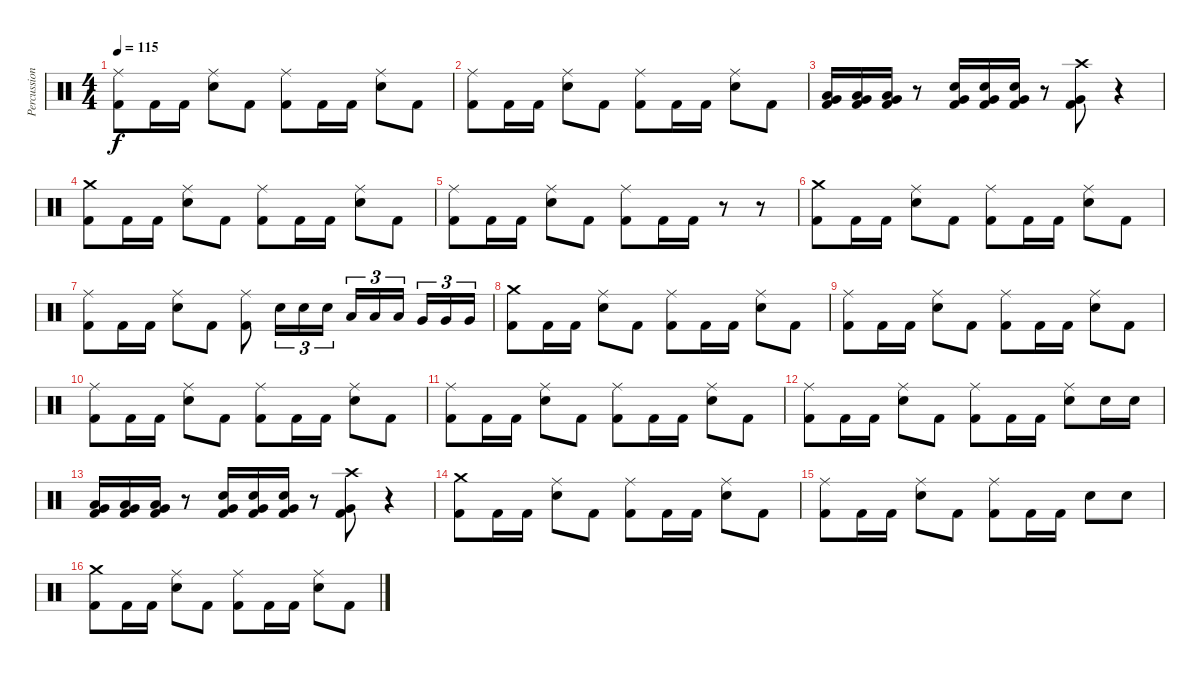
\track ("Percussioni" "Percussion") {instrument percussion}
\staff {score}
\articulation defaults
\ts (4 4)
\tempo 115
\clef neutral
\ks c
("Ride (middle)" "Kick (hit) 2").8{dy f} "Kick (hit) 2".16 "Kick (hit) 2".16 ("Ride (middle)" "Electric Snare (hit)").8 "Kick (hit) 2".8 ("Ride (middle)" "Kick (hit) 2").8 "Kick (hit) 2".16 "Kick (hit) 2".16 ("Ride (middle)" "Electric Snare (hit)").8 "Kick (hit) 2".8 |
("Ride (middle)" "Kick (hit) 2").8 "Kick (hit) 2".16 "Kick (hit) 2".16 ("Ride (middle)" "Electric Snare (hit)").8 "Kick (hit) 2".8 ("Ride (middle)" "Kick (hit) 2").8 "Kick (hit) 2".16 "Kick (hit) 2".16 ("Ride (middle)" "Electric Snare (hit)").8 "Kick (hit) 2".8 |
("Low Tom (hit)" "Very Low Tom (hit)" "Kick (hit) 2").16 ("Low Tom (hit)" "Very Low Tom (hit)" "Kick (hit) 2").16 ("Low Tom (hit)" "Very Low Tom (hit)" "Kick (hit) 2").16 r.8 ("Electric Snare (hit)" "Very Low Tom (hit)" "Kick (hit) 2").16 ("Electric Snare (hit)" "Very Low Tom (hit)" "Kick (hit) 2").16 ("Electric Snare (hit)" "Very Low Tom (hit)" "Kick (hit) 2").16 r.8 ("Crash high (hit)" "Very Low Tom (hit)" "Kick (hit) 2").8 r.4 |
("Crash medium (hit)" "Kick (hit) 2").8 "Kick (hit) 2".16 "Kick (hit) 2".16 ("Ride (middle)" "Electric Snare (hit)").8 "Kick (hit) 2".8 ("Ride (middle)" "Kick (hit) 2").8 "Kick (hit) 2".16 "Kick (hit) 2".16 ("Ride (middle)" "Electric Snare (hit)").8 "Kick (hit) 2".8 |
("Ride (middle)" "Kick (hit) 2").8 "Kick (hit) 2".16 "Kick (hit) 2".16 ("Ride (middle)" "Electric Snare (hit)").8 "Kick (hit) 2".8 ("Ride (middle)" "Kick (hit) 2").8 "Kick (hit) 2".16 "Kick (hit) 2".16 r.8 r.8 |
("Crash medium (hit)" "Kick (hit) 2").8 "Kick (hit) 2".16 "Kick (hit) 2".16 ("Ride (middle)" "Electric Snare (hit)").8 "Kick (hit) 2".8 ("Ride (middle)" "Kick (hit) 2").8 "Kick (hit) 2".16 "Kick (hit) 2".16 ("Ride (middle)" "Electric Snare (hit)").8 "Kick (hit) 2".8 |
("Ride (middle)" "Kick (hit) 2").8 "Kick (hit) 2".16 "Kick (hit) 2".16 ("Ride (middle)" "Electric Snare (hit)").8 "Kick (hit) 2".8 ("Ride (middle)" "Kick (hit) 2").8 "Electric Snare (hit)".16{tu (3 2)} "Electric Snare (hit)".16{tu (3 2)} "Electric Snare (hit)".16{tu (3 2)} "Low Tom (hit)".16{tu (3 2)} "Low Tom (hit)".16{tu (3 2)} "Low Tom (hit)".16{tu (3 2)} "Very Low Tom (hit)".16{tu (3 2)} "Very Low Tom (hit)".16{tu (3 2)} "Very Low Tom (hit)".16{tu (3 2)} |
("Crash medium (hit)" "Kick (hit) 2").8 "Kick (hit) 2".16 "Kick (hit) 2".16 ("Ride (middle)" "Electric Snare (hit)").8 "Kick (hit) 2".8 ("Ride (middle)" "Kick (hit) 2").8 "Kick (hit) 2".16 "Kick (hit) 2".16 ("Ride (middle)" "Electric Snare (hit)").8 "Kick (hit) 2".8 |
("Ride (middle)" "Kick (hit) 2").8 "Kick (hit) 2".16 "Kick (hit) 2".16 ("Ride (middle)" "Electric Snare (hit)").8 "Kick (hit) 2".8 ("Ride (middle)" "Kick (hit) 2").8 "Kick (hit) 2".16 "Kick (hit) 2".16 ("Ride (middle)" "Electric Snare (hit)").8 "Kick (hit) 2".8 |
("Ride (middle)" "Kick (hit) 2").8 "Kick (hit) 2".16 "Kick (hit) 2".16 ("Ride (middle)" "Electric Snare (hit)").8 "Kick (hit) 2".8 ("Ride (middle)" "Kick (hit) 2").8 "Kick (hit) 2".16 "Kick (hit) 2".16 ("Ride (middle)" "Electric Snare (hit)").8 "Kick (hit) 2".8 |
("Ride (middle)" "Kick (hit) 2").8 "Kick (hit) 2".16 "Kick (hit) 2".16 ("Ride (middle)" "Electric Snare (hit)").8 "Kick (hit) 2".8 ("Ride (middle)" "Kick (hit) 2").8 "Kick (hit) 2".16 "Kick (hit) 2".16 ("Ride (middle)" "Electric Snare (hit)").8 "Kick (hit) 2".8 |
("Ride (middle)" "Kick (hit) 2").8 "Kick (hit) 2".16 "Kick (hit) 2".16 ("Ride (middle)" "Electric Snare (hit)").8 "Kick (hit) 2".8 ("Ride (middle)" "Kick (hit) 2").8 "Kick (hit) 2".16 "Kick (hit) 2".16 ("Ride (middle)" "Electric Snare (hit)").8 "Electric Snare (hit)".16 "Electric Snare (hit)".16 |
("Low Tom (hit)" "Very Low Tom (hit)" "Kick (hit) 2").16 ("Low Tom (hit)" "Very Low Tom (hit)" "Kick (hit) 2").16 ("Low Tom (hit)" "Very Low Tom (hit)" "Kick (hit) 2").16 r.8 ("Electric Snare (hit)" "Very Low Tom (hit)" "Kick (hit) 2").16 ("Electric Snare (hit)" "Very Low Tom (hit)" "Kick (hit) 2").16 ("Electric Snare (hit)" "Very Low Tom (hit)" "Kick (hit) 2").16 r.8 ("Crash high (hit)" "Very Low Tom (hit)" "Kick (hit) 2").8 r.4 |
("Crash medium (hit)" "Kick (hit) 2").8 "Kick (hit) 2".16 "Kick (hit) 2".16 ("Ride (middle)" "Electric Snare (hit)").8 "Kick (hit) 2".8 ("Ride (middle)" "Kick (hit) 2").8 "Kick (hit) 2".16 "Kick (hit) 2".16 ("Ride (middle)" "Electric Snare (hit)").8 "Kick (hit) 2".8 |
("Ride (middle)" "Kick (hit) 2").8 "Kick (hit) 2".16 "Kick (hit) 2".16 ("Ride (middle)" "Electric Snare (hit)").8 "Kick (hit) 2".8 ("Ride (middle)" "Kick (hit) 2").8 "Kick (hit) 2".16 "Kick (hit) 2".16 "Electric Snare (hit)".8 "Electric Snare (hit)".8 |
("Crash medium (hit)" "Kick (hit) 2").8 "Kick (hit) 2".16 "Kick (hit) 2".16 ("Ride (middle)" "Electric Snare (hit)").8 "Kick (hit) 2".8 ("Ride (middle)" "Kick (hit) 2").8 "Kick (hit) 2".16 "Kick (hit) 2".16 ("Ride (middle)" "Electric Snare (hit)").8 "Kick (hit) 2".8
